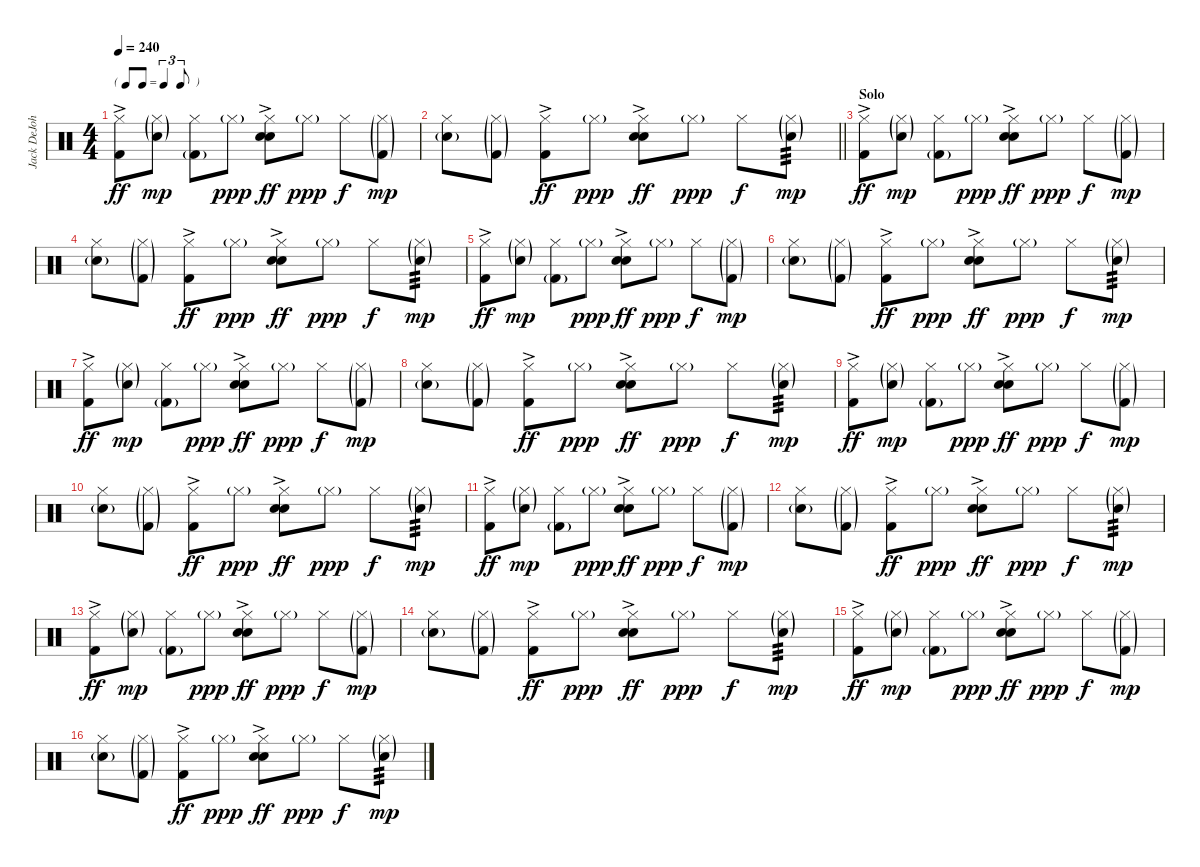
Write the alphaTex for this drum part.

\track ("Jack DeJohnette" "Jack DeJoh") {instrument percussion}
\staff {score}
\articulation defaults
\ts (4 4)
\tf triplet8th
\tempo 240
\clef neutral
\ks c
("Hi-Hat (closed)" "Kick (hit) 2"{ac}).8{dy ff} ("Hi-Hat (closed)"{g} "Snare (hit) 2"{g}).8{dy mp} ("Hi-Hat (closed)" "Kick (hit) 2"{g}).8 "Hi-Hat (closed)"{g}.8{dy ppp} ("Hi-Hat (closed)" "Electric Snare (hit)" "Snare (hit) 2"{ac}).8{dy ff} "Hi-Hat (closed)"{g}.8{dy ppp} "Hi-Hat (closed)".8{dy f} ("Hi-Hat (closed)"{g} "Kick (hit) 2"{g}).8{dy mp} |
\barLineRight lightlight
("Hi-Hat (closed)" "Snare (hit) 2"{g}).8 ("Hi-Hat (closed)"{g} "Kick (hit) 2"{g}).8 ("Hi-Hat (closed)" "Kick (hit) 2"{ac}).8{dy ff} "Hi-Hat (closed)"{g}.8{dy ppp} ("Hi-Hat (closed)" "Electric Snare (hit)" "Snare (hit) 2"{ac}).8{dy ff} "Hi-Hat (closed)"{g}.8{dy ppp} "Hi-Hat (closed)".8{dy f} ("Hi-Hat (closed)"{g} "Snare (hit) 2"{g}).8{tp 3 dy mp} |
\section ("" "Solo")
("Hi-Hat (closed)" "Kick (hit) 2"{ac}).8{dy ff} ("Hi-Hat (closed)"{g} "Snare (hit) 2"{g}).8{dy mp} ("Hi-Hat (closed)" "Kick (hit) 2"{g}).8 "Hi-Hat (closed)"{g}.8{dy ppp} ("Hi-Hat (closed)" "Electric Snare (hit)" "Snare (hit) 2"{ac}).8{dy ff} "Hi-Hat (closed)"{g}.8{dy ppp} "Hi-Hat (closed)".8{dy f} ("Hi-Hat (closed)"{g} "Kick (hit) 2"{g}).8{dy mp} |
("Hi-Hat (closed)" "Snare (hit) 2"{g}).8 ("Hi-Hat (closed)"{g} "Kick (hit) 2"{g}).8 ("Hi-Hat (closed)" "Kick (hit) 2"{ac}).8{dy ff} "Hi-Hat (closed)"{g}.8{dy ppp} ("Hi-Hat (closed)" "Electric Snare (hit)" "Snare (hit) 2"{ac}).8{dy ff} "Hi-Hat (closed)"{g}.8{dy ppp} "Hi-Hat (closed)".8{dy f} ("Hi-Hat (closed)"{g} "Snare (hit) 2"{g}).8{tp 3 dy mp} |
("Hi-Hat (closed)" "Kick (hit) 2"{ac}).8{dy ff} ("Hi-Hat (closed)"{g} "Snare (hit) 2"{g}).8{dy mp} ("Hi-Hat (closed)" "Kick (hit) 2"{g}).8 "Hi-Hat (closed)"{g}.8{dy ppp} ("Hi-Hat (closed)" "Electric Snare (hit)" "Snare (hit) 2"{ac}).8{dy ff} "Hi-Hat (closed)"{g}.8{dy ppp} "Hi-Hat (closed)".8{dy f} ("Hi-Hat (closed)"{g} "Kick (hit) 2"{g}).8{dy mp} |
("Hi-Hat (closed)" "Snare (hit) 2"{g}).8 ("Hi-Hat (closed)"{g} "Kick (hit) 2"{g}).8 ("Hi-Hat (closed)" "Kick (hit) 2"{ac}).8{dy ff} "Hi-Hat (closed)"{g}.8{dy ppp} ("Hi-Hat (closed)" "Electric Snare (hit)" "Snare (hit) 2"{ac}).8{dy ff} "Hi-Hat (closed)"{g}.8{dy ppp} "Hi-Hat (closed)".8{dy f} ("Hi-Hat (closed)"{g} "Snare (hit) 2"{g}).8{tp 3 dy mp} |
("Hi-Hat (closed)" "Kick (hit) 2"{ac}).8{dy ff} ("Hi-Hat (closed)"{g} "Snare (hit) 2"{g}).8{dy mp} ("Hi-Hat (closed)" "Kick (hit) 2"{g}).8 "Hi-Hat (closed)"{g}.8{dy ppp} ("Hi-Hat (closed)" "Electric Snare (hit)" "Snare (hit) 2"{ac}).8{dy ff} "Hi-Hat (closed)"{g}.8{dy ppp} "Hi-Hat (closed)".8{dy f} ("Hi-Hat (closed)"{g} "Kick (hit) 2"{g}).8{dy mp} |
("Hi-Hat (closed)" "Snare (hit) 2"{g}).8 ("Hi-Hat (closed)"{g} "Kick (hit) 2"{g}).8 ("Hi-Hat (closed)" "Kick (hit) 2"{ac}).8{dy ff} "Hi-Hat (closed)"{g}.8{dy ppp} ("Hi-Hat (closed)" "Electric Snare (hit)" "Snare (hit) 2"{ac}).8{dy ff} "Hi-Hat (closed)"{g}.8{dy ppp} "Hi-Hat (closed)".8{dy f} ("Hi-Hat (closed)"{g} "Snare (hit) 2"{g}).8{tp 3 dy mp} |
("Hi-Hat (closed)" "Kick (hit) 2"{ac}).8{dy ff} ("Hi-Hat (closed)"{g} "Snare (hit) 2"{g}).8{dy mp} ("Hi-Hat (closed)" "Kick (hit) 2"{g}).8 "Hi-Hat (closed)"{g}.8{dy ppp} ("Hi-Hat (closed)" "Electric Snare (hit)" "Snare (hit) 2"{ac}).8{dy ff} "Hi-Hat (closed)"{g}.8{dy ppp} "Hi-Hat (closed)".8{dy f} ("Hi-Hat (closed)"{g} "Kick (hit) 2"{g}).8{dy mp} |
("Hi-Hat (closed)" "Snare (hit) 2"{g}).8 ("Hi-Hat (closed)"{g} "Kick (hit) 2"{g}).8 ("Hi-Hat (closed)" "Kick (hit) 2"{ac}).8{dy ff} "Hi-Hat (closed)"{g}.8{dy ppp} ("Hi-Hat (closed)" "Electric Snare (hit)" "Snare (hit) 2"{ac}).8{dy ff} "Hi-Hat (closed)"{g}.8{dy ppp} "Hi-Hat (closed)".8{dy f} ("Hi-Hat (closed)"{g} "Snare (hit) 2"{g}).8{tp 3 dy mp} |
("Hi-Hat (closed)" "Kick (hit) 2"{ac}).8{dy ff} ("Hi-Hat (closed)"{g} "Snare (hit) 2"{g}).8{dy mp} ("Hi-Hat (closed)" "Kick (hit) 2"{g}).8 "Hi-Hat (closed)"{g}.8{dy ppp} ("Hi-Hat (closed)" "Electric Snare (hit)" "Snare (hit) 2"{ac}).8{dy ff} "Hi-Hat (closed)"{g}.8{dy ppp} "Hi-Hat (closed)".8{dy f} ("Hi-Hat (closed)"{g} "Kick (hit) 2"{g}).8{dy mp} |
("Hi-Hat (closed)" "Snare (hit) 2"{g}).8 ("Hi-Hat (closed)"{g} "Kick (hit) 2"{g}).8 ("Hi-Hat (closed)" "Kick (hit) 2"{ac}).8{dy ff} "Hi-Hat (closed)"{g}.8{dy ppp} ("Hi-Hat (closed)" "Electric Snare (hit)" "Snare (hit) 2"{ac}).8{dy ff} "Hi-Hat (closed)"{g}.8{dy ppp} "Hi-Hat (closed)".8{dy f} ("Hi-Hat (closed)"{g} "Snare (hit) 2"{g}).8{tp 3 dy mp} |
("Hi-Hat (closed)" "Kick (hit) 2"{ac}).8{dy ff} ("Hi-Hat (closed)"{g} "Snare (hit) 2"{g}).8{dy mp} ("Hi-Hat (closed)" "Kick (hit) 2"{g}).8 "Hi-Hat (closed)"{g}.8{dy ppp} ("Hi-Hat (closed)" "Electric Snare (hit)" "Snare (hit) 2"{ac}).8{dy ff} "Hi-Hat (closed)"{g}.8{dy ppp} "Hi-Hat (closed)".8{dy f} ("Hi-Hat (closed)"{g} "Kick (hit) 2"{g}).8{dy mp} |
("Hi-Hat (closed)" "Snare (hit) 2"{g}).8 ("Hi-Hat (closed)"{g} "Kick (hit) 2"{g}).8 ("Hi-Hat (closed)" "Kick (hit) 2"{ac}).8{dy ff} "Hi-Hat (closed)"{g}.8{dy ppp} ("Hi-Hat (closed)" "Electric Snare (hit)" "Snare (hit) 2"{ac}).8{dy ff} "Hi-Hat (closed)"{g}.8{dy ppp} "Hi-Hat (closed)".8{dy f} ("Hi-Hat (closed)"{g} "Snare (hit) 2"{g}).8{tp 3 dy mp} |
("Hi-Hat (closed)" "Kick (hit) 2"{ac}).8{dy ff} ("Hi-Hat (closed)"{g} "Snare (hit) 2"{g}).8{dy mp} ("Hi-Hat (closed)" "Kick (hit) 2"{g}).8 "Hi-Hat (closed)"{g}.8{dy ppp} ("Hi-Hat (closed)" "Electric Snare (hit)" "Snare (hit) 2"{ac}).8{dy ff} "Hi-Hat (closed)"{g}.8{dy ppp} "Hi-Hat (closed)".8{dy f} ("Hi-Hat (closed)"{g} "Kick (hit) 2"{g}).8{dy mp} |
("Hi-Hat (closed)" "Snare (hit) 2"{g}).8 ("Hi-Hat (closed)"{g} "Kick (hit) 2"{g}).8 ("Hi-Hat (closed)" "Kick (hit) 2"{ac}).8{dy ff} "Hi-Hat (closed)"{g}.8{dy ppp} ("Hi-Hat (closed)" "Electric Snare (hit)" "Snare (hit) 2"{ac}).8{dy ff} "Hi-Hat (closed)"{g}.8{dy ppp} "Hi-Hat (closed)".8{dy f} ("Hi-Hat (closed)"{g} "Snare (hit) 2"{g}).8{tp 3 dy mp}
